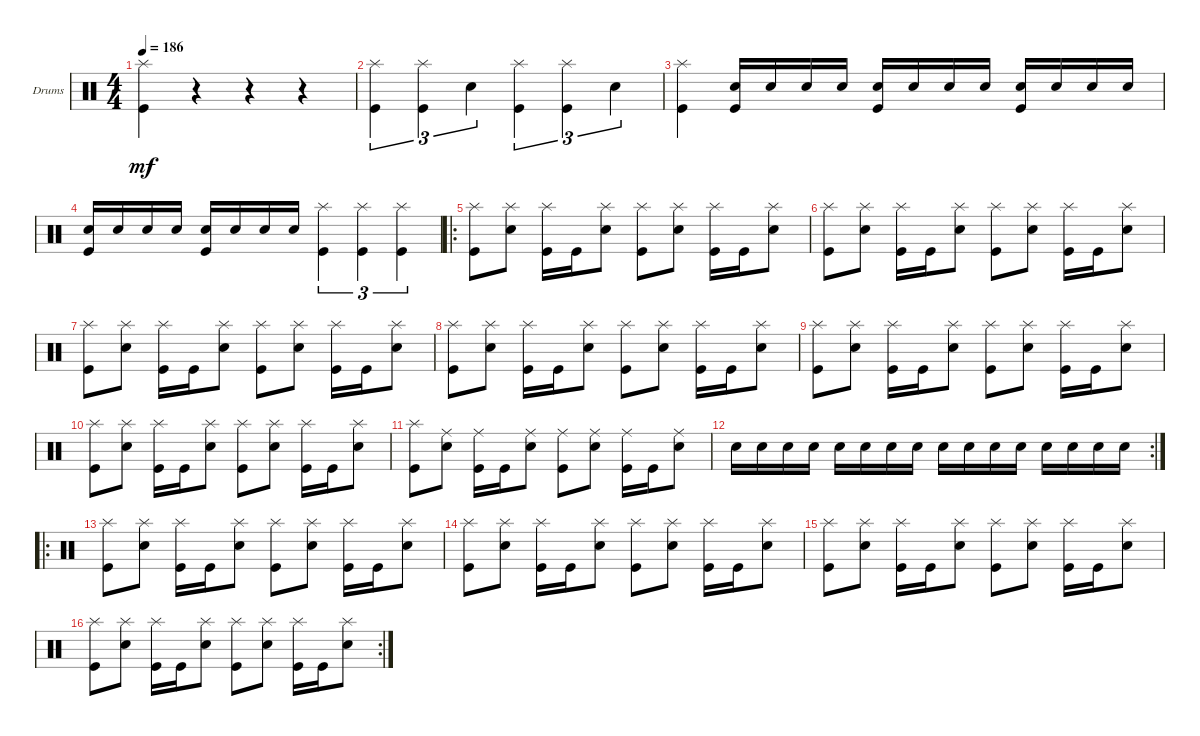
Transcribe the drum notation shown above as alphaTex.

\defaultSystemsLayout 4
\bracketExtendMode groupsimilarinstruments
\firstSystemTrackNameOrientation horizontal
\otherSystemsTrackNameOrientation horizontal
\track ("Drumkit" "Drums") {instrument percussion}
\staff {score}
\articulation defaults
\ts (4 4)
\tempo 186
\clef neutral
\ks c
("Kick (hit)" "Splash (hit)").4{dy mf} r.4 r.4 r.4 |
("Kick (hit)" "Splash (hit)").4{tu (3 2)} ("Kick (hit)" "Splash (hit)").4{tu (3 2)} "Snare (hit) 2".4{tu (3 2)} ("Kick (hit)" "Splash (hit)").4{tu (3 2)} ("Kick (hit)" "Splash (hit)").4{tu (3 2)} "Snare (hit) 2".4{tu (3 2)} |
("Splash (hit)" "Kick (hit)").4 ("Snare (hit) 2" "Kick (hit)").16 "Snare (hit) 2".16 "Snare (hit) 2".16 "Snare (hit) 2".16 ("Snare (hit) 2" "Kick (hit)").16 "Snare (hit) 2".16 "Snare (hit) 2".16 "Snare (hit) 2".16 ("Snare (hit) 2" "Kick (hit)").16 "Snare (hit) 2".16 "Snare (hit) 2".16 "Snare (hit) 2".16 |
("Snare (hit) 2" "Kick (hit)").16 "Snare (hit) 2".16 "Snare (hit) 2".16 "Snare (hit) 2".16 ("Snare (hit) 2" "Kick (hit)").16 "Snare (hit) 2".16 "Snare (hit) 2".16 "Snare (hit) 2".16 ("Kick (hit)" "Splash (hit)").4{tu (3 2)} ("Kick (hit)" "Splash (hit)").4{tu (3 2)} ("Kick (hit)" "Splash (hit)").4{tu (3 2)} |
\ro
("Kick (hit)" "Splash (hit)").8 ("Snare (hit) 2" "Splash (hit)").8 ("Kick (hit)" "Splash (hit)").16 "Kick (hit)".16 ("Snare (hit) 2" "Splash (hit)").8 ("Kick (hit)" "Splash (hit)").8 ("Snare (hit) 2" "Splash (hit)").8 ("Kick (hit)" "Splash (hit)").16 "Kick (hit)".16 ("Snare (hit) 2" "Splash (hit)").8 |
("Kick (hit)" "Splash (hit)").8 ("Snare (hit) 2" "Splash (hit)").8 ("Kick (hit)" "Splash (hit)").16 "Kick (hit)".16 ("Snare (hit) 2" "Splash (hit)").8 ("Kick (hit)" "Splash (hit)").8 ("Snare (hit) 2" "Splash (hit)").8 ("Kick (hit)" "Splash (hit)").16 "Kick (hit)".16 ("Snare (hit) 2" "Splash (hit)").8 |
("Kick (hit)" "Splash (hit)").8 ("Snare (hit) 2" "Splash (hit)").8 ("Kick (hit)" "Splash (hit)").16 "Kick (hit)".16 ("Snare (hit) 2" "Splash (hit)").8 ("Kick (hit)" "Splash (hit)").8 ("Snare (hit) 2" "Splash (hit)").8 ("Kick (hit)" "Splash (hit)").16 "Kick (hit)".16 ("Snare (hit) 2" "Splash (hit)").8 |
("Kick (hit)" "Splash (hit)").8 ("Snare (hit) 2" "Splash (hit)").8 ("Kick (hit)" "Splash (hit)").16 "Kick (hit)".16 ("Snare (hit) 2" "Splash (hit)").8 ("Kick (hit)" "Splash (hit)").8 ("Snare (hit) 2" "Splash (hit)").8 ("Kick (hit)" "Splash (hit)").16 "Kick (hit)".16 ("Snare (hit) 2" "Splash (hit)").8 |
("Kick (hit)" "Splash (hit)").8 ("Snare (hit) 2" "Splash (hit)").8 ("Kick (hit)" "Splash (hit)").16 "Kick (hit)".16 ("Snare (hit) 2" "Splash (hit)").8 ("Kick (hit)" "Splash (hit)").8 ("Snare (hit) 2" "Splash (hit)").8 ("Kick (hit)" "Splash (hit)").16 "Kick (hit)".16 ("Snare (hit) 2" "Splash (hit)").8 |
("Kick (hit)" "Splash (hit)").8 ("Snare (hit) 2" "Splash (hit)").8 ("Kick (hit)" "Splash (hit)").16 "Kick (hit)".16 ("Snare (hit) 2" "Splash (hit)").8 ("Kick (hit)" "Splash (hit)").8 ("Snare (hit) 2" "Splash (hit)").8 ("Kick (hit)" "Splash (hit)").16 "Kick (hit)".16 ("Snare (hit) 2" "Splash (hit)").8 |
("Kick (hit)" "Splash (hit)").8 ("Snare (hit) 2" "Ride (middle)").8 ("Kick (hit)" "Ride (middle)").16 "Kick (hit)".16 ("Snare (hit) 2" "Ride (middle)").8 ("Kick (hit)" "Ride (middle)").8 ("Snare (hit) 2" "Ride (middle)").8 ("Kick (hit)" "Ride (middle)").16 "Kick (hit)".16 ("Snare (hit) 2" "Ride (middle)").8 |
\rc 2 "Snare (hit) 2".16 "Snare (hit) 2".16 "Snare (hit) 2".16 "Snare (hit) 2".16 "Snare (hit) 2".16 "Snare (hit) 2".16 "Snare (hit) 2".16 "Snare (hit) 2".16 "Snare (hit) 2".16 "Snare (hit) 2".16 "Snare (hit) 2".16 "Snare (hit) 2".16 "Snare (hit) 2".16 "Snare (hit) 2".16 "Snare (hit) 2".16 "Snare (hit) 2".16
|
\ro
("Kick (hit)" "Splash (hit)").8 ("Snare (hit) 2" "Splash (hit)").8 ("Kick (hit)" "Splash (hit)").16 "Kick (hit)".16 ("Snare (hit) 2" "Splash (hit)").8 ("Kick (hit)" "Splash (hit)").8 ("Snare (hit) 2" "Splash (hit)").8 ("Kick (hit)" "Splash (hit)").16 "Kick (hit)".16 ("Snare (hit) 2" "Splash (hit)").8 |
("Kick (hit)" "Splash (hit)").8 ("Snare (hit) 2" "Splash (hit)").8 ("Kick (hit)" "Splash (hit)").16 "Kick (hit)".16 ("Snare (hit) 2" "Splash (hit)").8 ("Kick (hit)" "Splash (hit)").8 ("Snare (hit) 2" "Splash (hit)").8 ("Kick (hit)" "Splash (hit)").16 "Kick (hit)".16 ("Snare (hit) 2" "Splash (hit)").8 |
("Kick (hit)" "Splash (hit)").8 ("Snare (hit) 2" "Splash (hit)").8 ("Kick (hit)" "Splash (hit)").16 "Kick (hit)".16 ("Snare (hit) 2" "Splash (hit)").8 ("Kick (hit)" "Splash (hit)").8 ("Snare (hit) 2" "Splash (hit)").8 ("Kick (hit)" "Splash (hit)").16 "Kick (hit)".16 ("Snare (hit) 2" "Splash (hit)").8 |
\rc 2
("Kick (hit)" "Splash (hit)").8 ("Snare (hit) 2" "Splash (hit)").8 ("Kick (hit)" "Splash (hit)").16 "Kick (hit)".16 ("Snare (hit) 2" "Splash (hit)").8 ("Kick (hit)" "Splash (hit)").8 ("Snare (hit) 2" "Splash (hit)").8 ("Kick (hit)" "Splash (hit)").16 "Kick (hit)".16 ("Snare (hit) 2" "Splash (hit)").8
